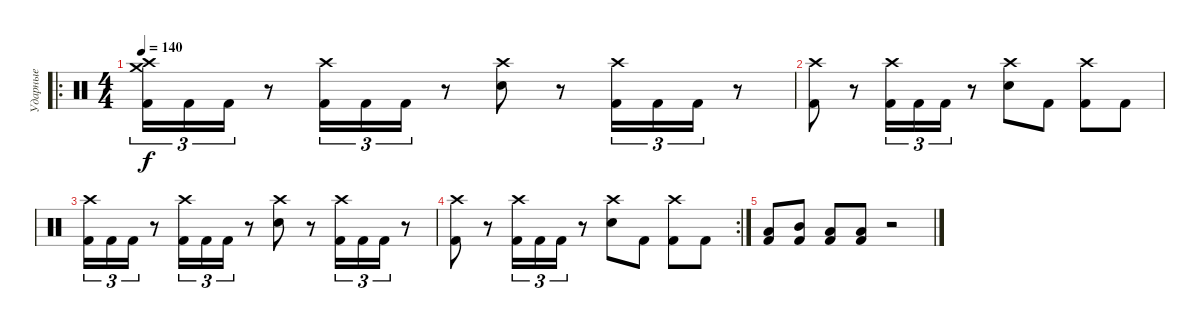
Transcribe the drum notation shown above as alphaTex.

\track ("Ударные" "Ударные") {instrument percussion}
\staff
\articulation defaults
\ro
\ts (4 4)
\tempo 140
\clef neutral
\ks c
("Crash high (hit)" "Crash medium (hit)" "Kick (hit) 2").16{tu (3 2) dy f} "Kick (hit) 2".16{tu (3 2)} "Kick (hit) 2".16{tu (3 2)} r.8 ("Crash high (hit)" "Kick (hit) 2").16{tu (3 2)} "Kick (hit) 2".16{tu (3 2)} "Kick (hit) 2".16{tu (3 2)} r.8 ("Crash high (hit)" "Snare (hit) 2").8 r.8 ("Crash high (hit)" "Kick (hit) 2").16{tu (3 2)} "Kick (hit) 2".16{tu (3 2)} "Kick (hit) 2".16{tu (3 2)} r.8 |
("Crash high (hit)" "Kick (hit) 2").8 r.8 ("Crash high (hit)" "Kick (hit) 2").16{tu (3 2)} "Kick (hit) 2".16{tu (3 2)} "Kick (hit) 2".16{tu (3 2)} r.8 ("Crash high (hit)" "Snare (hit) 2").8 "Kick (hit) 2".8 ("Crash high (hit)" "Kick (hit) 2").8 "Kick (hit) 2".8 |
("Crash high (hit)" "Kick (hit) 2").16{tu (3 2)} "Kick (hit) 2".16{tu (3 2)} "Kick (hit) 2".16{tu (3 2)} r.8 ("Crash high (hit)" "Kick (hit) 2").16{tu (3 2)} "Kick (hit) 2".16{tu (3 2)} "Kick (hit) 2".16{tu (3 2)} r.8 ("Crash high (hit)" "Snare (hit) 2").8 r.8 ("Crash high (hit)" "Kick (hit) 2").16{tu (3 2)} "Kick (hit) 2".16{tu (3 2)} "Kick (hit) 2".16{tu (3 2)} r.8 |
\rc 2
("Crash high (hit)" "Kick (hit) 2").8 r.8 ("Crash high (hit)" "Kick (hit) 2").16{tu (3 2)} "Kick (hit) 2".16{tu (3 2)} "Kick (hit) 2".16{tu (3 2)} r.8 ("Crash high (hit)" "Snare (hit) 2").8 "Kick (hit) 2".8 ("Crash high (hit)" "Kick (hit) 2").8 "Kick (hit) 2".8 |
("Low Tom (hit)" "Kick (hit) 2").8 ("Mid Tom (hit)" "Kick (hit) 2").8 ("Low Floor Tom (hit)" "Kick (hit) 2").8 ("Low Floor Tom (hit)" "Kick (hit) 2").8 r.2
